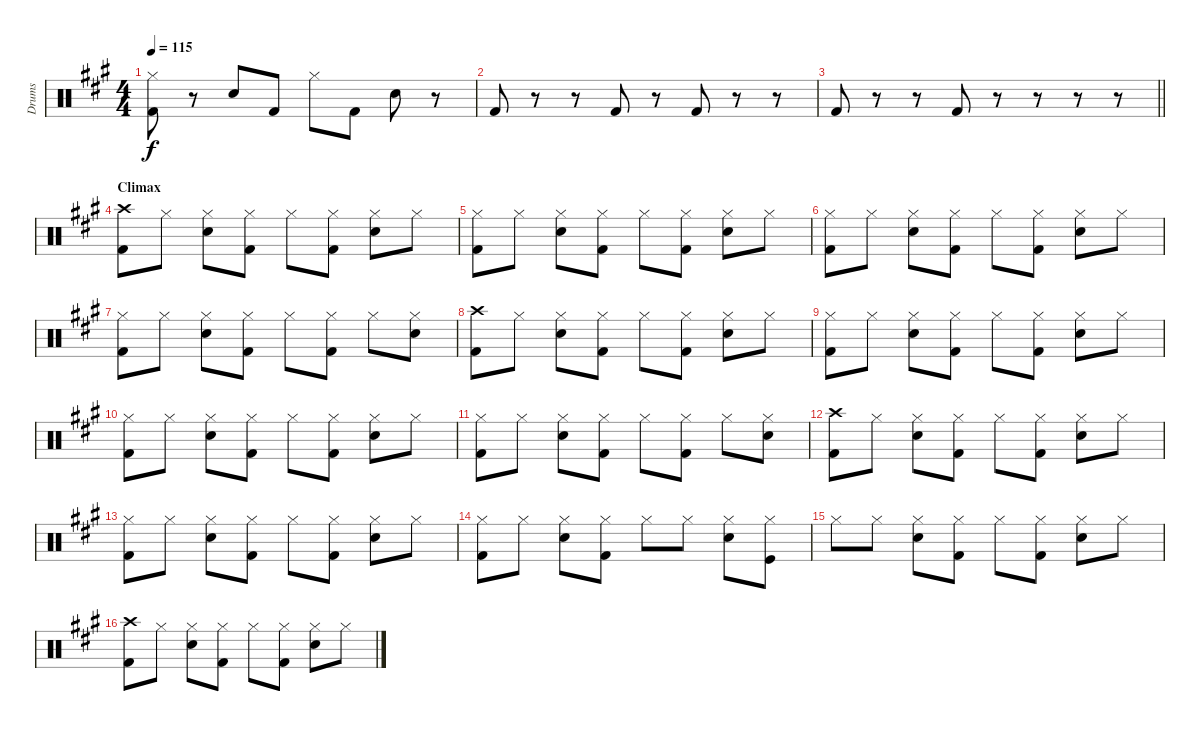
\track ("Drums" "Drums") {instrument percussion}
\staff {score}
\articulation defaults
\ts (4 4)
\tempo 115
\clef neutral
\ks f#minor
("Kick (hit) 2" "Hi-Hat (closed)").8{dy f} r.8 "Snare (hit) 2".8 "Kick (hit) 2".8 "Hi-Hat (closed)".8 "Kick (hit) 2".8 "Snare (hit) 2".8 r.8 |
"Kick (hit) 2".8 r.8 r.8 "Kick (hit) 2".8 r.8 "Kick (hit) 2".8 r.8 r.8 |
\barLineRight lightlight "Kick (hit) 2".8
r.8 r.8 "Kick (hit) 2".8 r.8 r.8 r.8 r.8 |
\section ("" "Climax")
("Kick (hit) 2" "Crash high (hit)").8 "Hi-Hat (closed)".8 ("Snare (hit) 2" "Hi-Hat (closed)").8 ("Kick (hit) 2" "Hi-Hat (closed)").8 "Hi-Hat (closed)".8 ("Kick (hit) 2" "Hi-Hat (closed)").8 ("Snare (hit) 2" "Hi-Hat (closed)").8 "Hi-Hat (closed)".8 |
("Kick (hit) 2" "Hi-Hat (closed)").8 "Hi-Hat (closed)".8 ("Snare (hit) 2" "Hi-Hat (closed)").8 ("Kick (hit) 2" "Hi-Hat (closed)").8 "Hi-Hat (closed)".8 ("Kick (hit) 2" "Hi-Hat (closed)").8 ("Snare (hit) 2" "Hi-Hat (closed)").8 "Hi-Hat (closed)".8 |
("Kick (hit) 2" "Hi-Hat (closed)").8 "Hi-Hat (closed)".8 ("Snare (hit) 2" "Hi-Hat (closed)").8 ("Kick (hit) 2" "Hi-Hat (closed)").8 "Hi-Hat (closed)".8 ("Kick (hit) 2" "Hi-Hat (closed)").8 ("Snare (hit) 2" "Hi-Hat (closed)").8 "Hi-Hat (closed)".8 |
("Kick (hit) 2" "Hi-Hat (closed)").8 "Hi-Hat (closed)".8 ("Snare (hit) 2" "Hi-Hat (closed)").8 ("Kick (hit) 2" "Hi-Hat (closed)").8 "Hi-Hat (closed)".8 ("Kick (hit) 2" "Hi-Hat (closed)").8 "Hi-Hat (closed)".8 ("Snare (hit) 2" "Hi-Hat (closed)").8 |
("Kick (hit) 2" "Crash high (hit)").8 "Hi-Hat (closed)".8 ("Snare (hit) 2" "Hi-Hat (closed)").8 ("Kick (hit) 2" "Hi-Hat (closed)").8 "Hi-Hat (closed)".8 ("Kick (hit) 2" "Hi-Hat (closed)").8 ("Snare (hit) 2" "Hi-Hat (closed)").8 "Hi-Hat (closed)".8 |
("Kick (hit) 2" "Hi-Hat (closed)").8 "Hi-Hat (closed)".8 ("Snare (hit) 2" "Hi-Hat (closed)").8 ("Kick (hit) 2" "Hi-Hat (closed)").8 "Hi-Hat (closed)".8 ("Kick (hit) 2" "Hi-Hat (closed)").8 ("Snare (hit) 2" "Hi-Hat (closed)").8 "Hi-Hat (closed)".8 |
("Kick (hit) 2" "Hi-Hat (closed)").8 "Hi-Hat (closed)".8 ("Snare (hit) 2" "Hi-Hat (closed)").8 ("Kick (hit) 2" "Hi-Hat (closed)").8 "Hi-Hat (closed)".8 ("Kick (hit) 2" "Hi-Hat (closed)").8 ("Snare (hit) 2" "Hi-Hat (closed)").8 "Hi-Hat (closed)".8 |
("Kick (hit) 2" "Hi-Hat (closed)").8 "Hi-Hat (closed)".8 ("Snare (hit) 2" "Hi-Hat (closed)").8 ("Kick (hit) 2" "Hi-Hat (closed)").8 "Hi-Hat (closed)".8 ("Kick (hit) 2" "Hi-Hat (closed)").8 "Hi-Hat (closed)".8 ("Snare (hit) 2" "Hi-Hat (closed)").8 |
("Kick (hit) 2" "Crash high (hit)").8 "Hi-Hat (closed)".8 ("Snare (hit) 2" "Hi-Hat (closed)").8 ("Kick (hit) 2" "Hi-Hat (closed)").8 "Hi-Hat (closed)".8 ("Kick (hit) 2" "Hi-Hat (closed)").8 ("Snare (hit) 2" "Hi-Hat (closed)").8 "Hi-Hat (closed)".8 |
("Kick (hit) 2" "Hi-Hat (closed)").8 "Hi-Hat (closed)".8 ("Snare (hit) 2" "Hi-Hat (closed)").8 ("Kick (hit) 2" "Hi-Hat (closed)").8 "Hi-Hat (closed)".8 ("Kick (hit) 2" "Hi-Hat (closed)").8 ("Snare (hit) 2" "Hi-Hat (closed)").8 "Hi-Hat (closed)".8 |
("Kick (hit) 2" "Hi-Hat (closed)").8 "Hi-Hat (closed)".8 ("Snare (hit) 2" "Hi-Hat (closed)").8 ("Kick (hit) 2" "Hi-Hat (closed)").8 "Hi-Hat (closed)".8 "Hi-Hat (closed)".8 ("Snare (hit) 2" "Hi-Hat (closed)").8 ("Hi-Hat (closed)" "Kick (hit)").8 |
"Hi-Hat (closed)".8 "Hi-Hat (closed)".8 ("Snare (hit) 2" "Hi-Hat (closed)").8 ("Kick (hit) 2" "Hi-Hat (closed)").8 "Hi-Hat (closed)".8 ("Kick (hit) 2" "Hi-Hat (closed)").8 ("Hi-Hat (closed)" "Snare (hit) 2").8 "Hi-Hat (closed)".8 |
("Kick (hit) 2" "Crash high (hit)").8 "Hi-Hat (closed)".8 ("Snare (hit) 2" "Hi-Hat (closed)").8 ("Kick (hit) 2" "Hi-Hat (closed)").8 "Hi-Hat (closed)".8 ("Kick (hit) 2" "Hi-Hat (closed)").8 ("Snare (hit) 2" "Hi-Hat (closed)").8 "Hi-Hat (closed)".8
